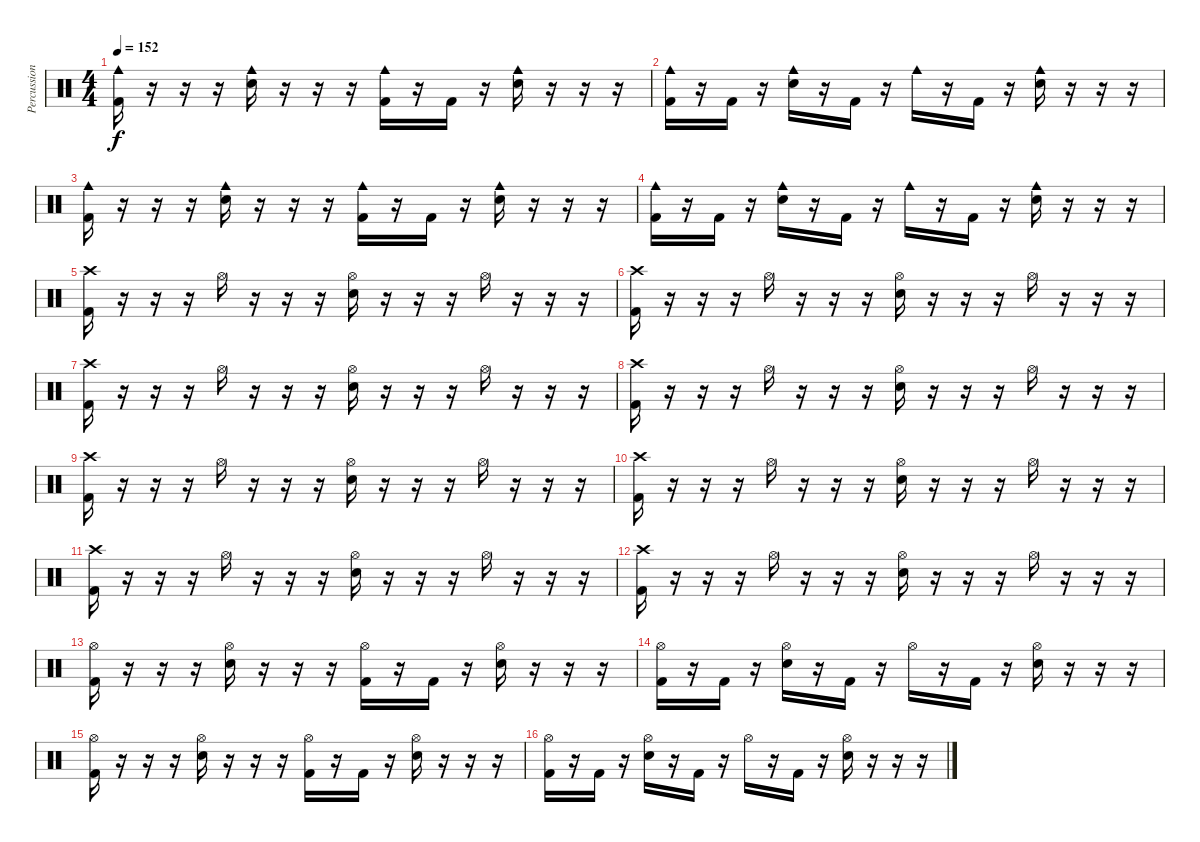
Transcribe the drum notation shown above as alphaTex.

\track ("Percussions" "Percussion") {instrument percussion}
\staff {score}
\articulation defaults
\ts (4 4)
\tempo 152
\clef neutral
\ks c
("Kick (hit) 2" "Cowbell medium (hit)").16{dy f} r.16 r.16 r.16 ("Electric Snare (hit)" "Cowbell medium (hit)").16 r.16 r.16 r.16 ("Kick (hit) 2" "Cowbell medium (hit)").16 r.16 "Kick (hit) 2".16 r.16 ("Electric Snare (hit)" "Cowbell medium (hit)").16 r.16 r.16 r.16 |
("Kick (hit) 2" "Cowbell medium (hit)").16 r.16 "Kick (hit) 2".16 r.16 ("Electric Snare (hit)" "Cowbell medium (hit)").16 r.16 "Kick (hit) 2".16 r.16 "Cowbell medium (hit)".16 r.16 "Kick (hit) 2".16 r.16 ("Electric Snare (hit)" "Cowbell medium (hit)").16 r.16 r.16 r.16 |
("Kick (hit) 2" "Cowbell medium (hit)").16 r.16 r.16 r.16 ("Electric Snare (hit)" "Cowbell medium (hit)").16 r.16 r.16 r.16 ("Kick (hit) 2" "Cowbell medium (hit)").16 r.16 "Kick (hit) 2".16 r.16 ("Electric Snare (hit)" "Cowbell medium (hit)").16 r.16 r.16 r.16 |
("Kick (hit) 2" "Cowbell medium (hit)").16 r.16 "Kick (hit) 2".16 r.16 ("Electric Snare (hit)" "Cowbell medium (hit)").16 r.16 "Kick (hit) 2".16 r.16 "Cowbell medium (hit)".16 r.16 "Kick (hit) 2".16 r.16 ("Electric Snare (hit)" "Cowbell medium (hit)").16 r.16 r.16 r.16 |
("Kick (hit) 2" "Crash high (hit)").16 r.16 r.16 r.16 "Hi-Hat (open)".16 r.16 r.16 r.16 ("Electric Snare (hit)" "Hi-Hat (open)").16 r.16 r.16 r.16 "Hi-Hat (open)".16 r.16 r.16 r.16 |
("Kick (hit) 2" "Crash high (hit)").16 r.16 r.16 r.16 "Hi-Hat (open)".16 r.16 r.16 r.16 ("Electric Snare (hit)" "Hi-Hat (open)").16 r.16 r.16 r.16 "Hi-Hat (open)".16 r.16 r.16 r.16 |
("Kick (hit) 2" "Crash high (hit)").16 r.16 r.16 r.16 "Hi-Hat (open)".16 r.16 r.16 r.16 ("Electric Snare (hit)" "Hi-Hat (open)").16 r.16 r.16 r.16 "Hi-Hat (open)".16 r.16 r.16 r.16 |
("Kick (hit) 2" "Crash high (hit)").16 r.16 r.16 r.16 "Hi-Hat (open)".16 r.16 r.16 r.16 ("Electric Snare (hit)" "Hi-Hat (open)").16 r.16 r.16 r.16 "Hi-Hat (open)".16 r.16 r.16 r.16 |
("Kick (hit) 2" "Crash high (hit)").16 r.16 r.16 r.16 "Hi-Hat (open)".16 r.16 r.16 r.16 ("Electric Snare (hit)" "Hi-Hat (open)").16 r.16 r.16 r.16 "Hi-Hat (open)".16 r.16 r.16 r.16 |
("Kick (hit) 2" "Crash high (hit)").16 r.16 r.16 r.16 "Hi-Hat (open)".16 r.16 r.16 r.16 ("Electric Snare (hit)" "Hi-Hat (open)").16 r.16 r.16 r.16 "Hi-Hat (open)".16 r.16 r.16 r.16 |
("Kick (hit) 2" "Crash high (hit)").16 r.16 r.16 r.16 "Hi-Hat (open)".16 r.16 r.16 r.16 ("Electric Snare (hit)" "Hi-Hat (open)").16 r.16 r.16 r.16 "Hi-Hat (open)".16 r.16 r.16 r.16 |
("Kick (hit) 2" "Crash high (hit)").16 r.16 r.16 r.16 "Hi-Hat (open)".16 r.16 r.16 r.16 ("Electric Snare (hit)" "Hi-Hat (open)").16 r.16 r.16 r.16 "Hi-Hat (open)".16 r.16 r.16 r.16 |
("Kick (hit) 2" "Hi-Hat (open)").16 r.16 r.16 r.16 ("Electric Snare (hit)" "Hi-Hat (open)").16 r.16 r.16 r.16 ("Kick (hit) 2" "Hi-Hat (open)").16 r.16 "Kick (hit) 2".16 r.16 ("Electric Snare (hit)" "Hi-Hat (open)").16 r.16 r.16 r.16 |
("Kick (hit) 2" "Hi-Hat (open)").16 r.16 "Kick (hit) 2".16 r.16 ("Electric Snare (hit)" "Hi-Hat (open)").16 r.16 "Kick (hit) 2".16 r.16 "Hi-Hat (open)".16 r.16 "Kick (hit) 2".16 r.16 ("Electric Snare (hit)" "Hi-Hat (open)").16 r.16 r.16 r.16 |
("Kick (hit) 2" "Hi-Hat (open)").16 r.16 r.16 r.16 ("Electric Snare (hit)" "Hi-Hat (open)").16 r.16 r.16 r.16 ("Kick (hit) 2" "Hi-Hat (open)").16 r.16 "Kick (hit) 2".16 r.16 ("Electric Snare (hit)" "Hi-Hat (open)").16 r.16 r.16 r.16 |
("Kick (hit) 2" "Hi-Hat (open)").16 r.16 "Kick (hit) 2".16 r.16 ("Electric Snare (hit)" "Hi-Hat (open)").16 r.16 "Kick (hit) 2".16 r.16 "Hi-Hat (open)".16 r.16 "Kick (hit) 2".16 r.16 ("Electric Snare (hit)" "Hi-Hat (open)").16 r.16 r.16 r.16
